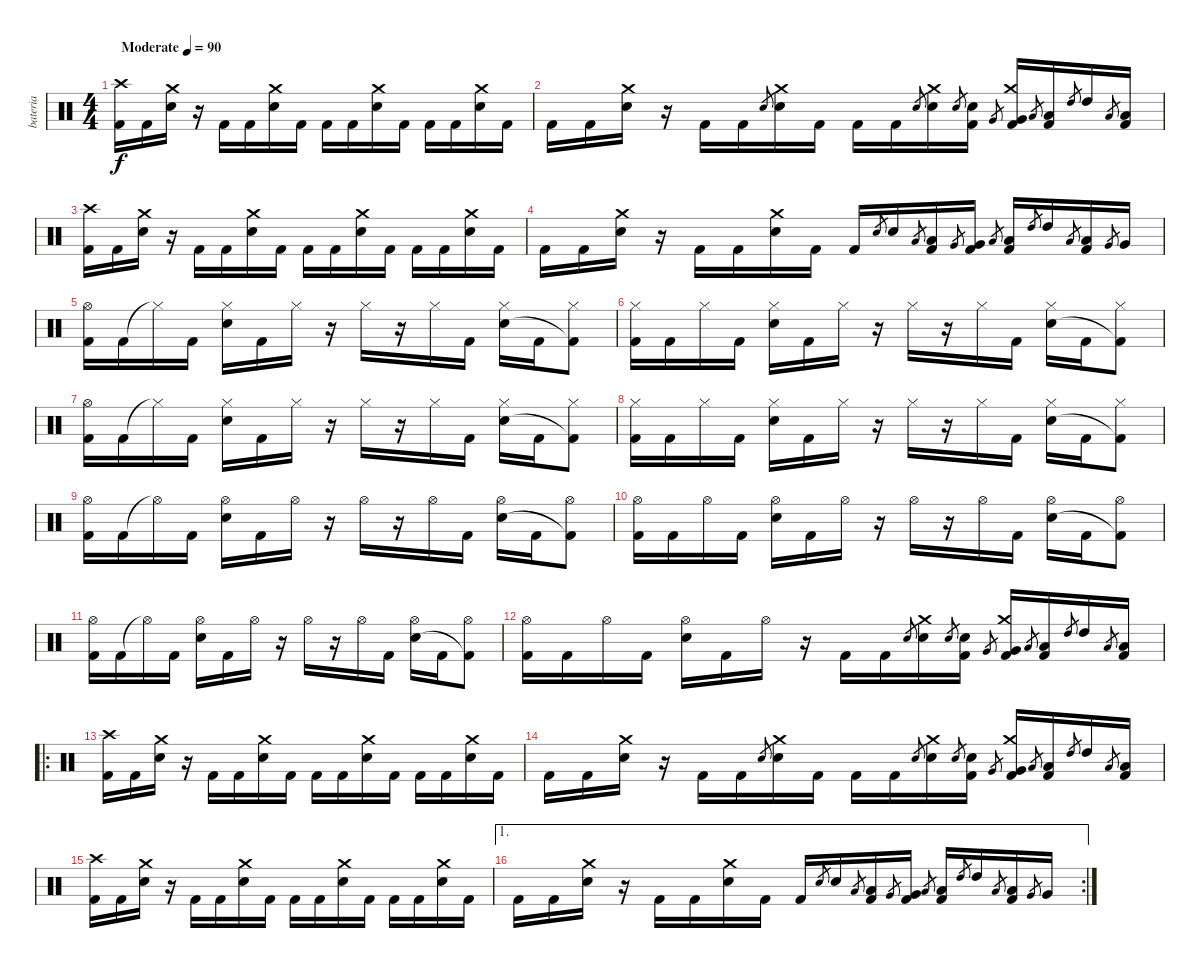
\track ("bateria" "bateria") {instrument percussion}
\staff {score}
\articulation defaults
\ts (4 4)
\tempo (90 "Moderate")
\clef neutral
\ks c
("Crash high (hit)" "Kick (hit) 2").16{dy f} "Kick (hit) 2".16 ("Crash medium (hit)" "Electric Snare (hit)").16 r.16 "Kick (hit) 2".16 "Kick (hit) 2".16 ("Crash medium (hit)" "Electric Snare (hit)").16 "Kick (hit) 2".16 "Kick (hit) 2".16 "Kick (hit) 2".16 ("Crash medium (hit)" "Electric Snare (hit)").16 "Kick (hit) 2".16 "Kick (hit) 2".16 "Kick (hit) 2".16 ("Crash medium (hit)" "Electric Snare (hit)").16 "Kick (hit) 2".16 |
"Kick (hit) 2".16 "Kick (hit) 2".16 ("Crash medium (hit)" "Electric Snare (hit)").16 r.16 "Kick (hit) 2".16 "Kick (hit) 2".16 "Electric Snare (hit)".8{gr} ("Crash medium (hit)" "Electric Snare (hit)").16 "Kick (hit) 2".16 "Kick (hit) 2".16 "Kick (hit) 2".16 "Electric Snare (hit)".8{gr} ("Crash medium (hit)" "Electric Snare (hit)").16 "Electric Snare (hit)".8{gr} ("Electric Snare (hit)" "Kick (hit) 2").16 "Very Low Tom (hit)".8{gr} ("Crash medium (hit)" "Very Low Tom (hit)" "Kick (hit) 2").16 "Low Tom (hit)".8{gr} ("Low Tom (hit)" "Kick (hit) 2").16 "High Tom (hit)".8{gr} "High Tom (hit)".16 "Low Tom (hit)".8{gr} ("Low Tom (hit)" "Kick (hit) 2").16 |
("Crash high (hit)" "Kick (hit) 2").16 "Kick (hit) 2".16 ("Crash medium (hit)" "Electric Snare (hit)").16 r.16 "Kick (hit) 2".16 "Kick (hit) 2".16 ("Crash medium (hit)" "Electric Snare (hit)").16 "Kick (hit) 2".16 "Kick (hit) 2".16 "Kick (hit) 2".16 ("Crash medium (hit)" "Electric Snare (hit)").16 "Kick (hit) 2".16 "Kick (hit) 2".16 "Kick (hit) 2".16 ("Crash medium (hit)" "Electric Snare (hit)").16 "Kick (hit) 2".16 |
"Kick (hit) 2".16 "Kick (hit) 2".16 ("Crash medium (hit)" "Electric Snare (hit)").16 r.16 "Kick (hit) 2".16 "Kick (hit) 2".16 ("Crash medium (hit)" "Electric Snare (hit)").16 "Kick (hit) 2".16 "Kick (hit) 2".16 "Electric Snare (hit)".8{gr} "Electric Snare (hit)".16 "Low Tom (hit)".8{gr} ("Low Tom (hit)" "Kick (hit) 2").16 "Very Low Tom (hit)".8{gr} ("Very Low Tom (hit)" "Kick (hit) 2").16 "Low Tom (hit)".8{gr} ("Low Tom (hit)" "Kick (hit) 2").16 "High Tom (hit)".8{gr} "High Tom (hit)".16 "Low Tom (hit)".8{gr} ("Low Tom (hit)" "Kick (hit) 2").16 "Very Low Tom (hit)".8{gr} "Very Low Tom (hit)".16 |
("Hi-Hat (open)" "Kick (hit) 2").16 "Kick (hit) 2".16 "Hi-Hat (closed)"{t}.16 "Kick (hit) 2".16 ("Hi-Hat (closed)" "Electric Snare (hit)").16 "Kick (hit) 2".16 "Hi-Hat (closed)".16 r.16 "Hi-Hat (closed)".16 r.16 "Hi-Hat (closed)".16 "Kick (hit) 2".16 ("Hi-Hat (closed)" "Electric Snare (hit)").16 "Kick (hit) 2".16 ("Hi-Hat (closed)" "Kick (hit) 2"{t}).8 |
("Hi-Hat (closed)" "Kick (hit) 2").16 "Kick (hit) 2".16 "Hi-Hat (closed)".16 "Kick (hit) 2".16 ("Hi-Hat (closed)" "Electric Snare (hit)").16 "Kick (hit) 2".16 "Hi-Hat (closed)".16 r.16 "Hi-Hat (closed)".16 r.16 "Hi-Hat (closed)".16 "Kick (hit) 2".16 ("Hi-Hat (closed)" "Electric Snare (hit)").16 "Kick (hit) 2".16 ("Hi-Hat (closed)" "Kick (hit) 2"{t}).8 |
("Hi-Hat (open)" "Kick (hit) 2").16 "Kick (hit) 2".16 "Hi-Hat (closed)"{t}.16 "Kick (hit) 2".16 ("Hi-Hat (closed)" "Electric Snare (hit)").16 "Kick (hit) 2".16 "Hi-Hat (closed)".16 r.16 "Hi-Hat (closed)".16 r.16 "Hi-Hat (closed)".16 "Kick (hit) 2".16 ("Hi-Hat (closed)" "Electric Snare (hit)").16 "Kick (hit) 2".16 ("Hi-Hat (closed)" "Kick (hit) 2"{t}).8 |
("Hi-Hat (closed)" "Kick (hit) 2").16 "Kick (hit) 2".16 "Hi-Hat (closed)".16 "Kick (hit) 2".16 ("Hi-Hat (closed)" "Electric Snare (hit)").16 "Kick (hit) 2".16 "Hi-Hat (closed)".16 r.16 "Hi-Hat (closed)".16 r.16 "Hi-Hat (closed)".16 "Kick (hit) 2".16 ("Hi-Hat (closed)" "Electric Snare (hit)").16 "Kick (hit) 2".16 ("Hi-Hat (closed)" "Kick (hit) 2"{t}).8 |
("Hi-Hat (open)" "Kick (hit) 2").16 "Kick (hit) 2".16 "Hi-Hat (open)"{t}.16 "Kick (hit) 2".16 ("Hi-Hat (open)" "Electric Snare (hit)").16 "Kick (hit) 2".16 "Hi-Hat (open)".16 r.16 "Hi-Hat (open)".16 r.16 "Hi-Hat (open)".16 "Kick (hit) 2".16 ("Hi-Hat (open)" "Electric Snare (hit)").16 "Kick (hit) 2".16 ("Hi-Hat (open)" "Kick (hit) 2"{t}).8 |
("Hi-Hat (open)" "Kick (hit) 2").16 "Kick (hit) 2".16 "Hi-Hat (open)".16 "Kick (hit) 2".16 ("Hi-Hat (open)" "Electric Snare (hit)").16 "Kick (hit) 2".16 "Hi-Hat (open)".16 r.16 "Hi-Hat (open)".16 r.16 "Hi-Hat (open)".16 "Kick (hit) 2".16 ("Hi-Hat (open)" "Electric Snare (hit)").16 "Kick (hit) 2".16 ("Hi-Hat (open)" "Kick (hit) 2"{t}).8 |
("Hi-Hat (open)" "Kick (hit) 2").16 "Kick (hit) 2".16 "Hi-Hat (open)"{t}.16 "Kick (hit) 2".16 ("Hi-Hat (open)" "Electric Snare (hit)").16 "Kick (hit) 2".16 "Hi-Hat (open)".16 r.16 "Hi-Hat (open)".16 r.16 "Hi-Hat (open)".16 "Kick (hit) 2".16 ("Hi-Hat (open)" "Electric Snare (hit)").16 "Kick (hit) 2".16 ("Hi-Hat (open)" "Kick (hit) 2"{t}).8 |
("Hi-Hat (open)" "Kick (hit) 2").16 "Kick (hit) 2".16 "Hi-Hat (open)".16 "Kick (hit) 2".16 ("Hi-Hat (open)" "Electric Snare (hit)").16 "Kick (hit) 2".16 "Hi-Hat (open)".16 r.16 "Kick (hit) 2".16 "Kick (hit) 2".16 "Electric Snare (hit)".8{gr} ("Crash medium (hit)" "Electric Snare (hit)").16 "Electric Snare (hit)".8{gr} ("Electric Snare (hit)" "Kick (hit) 2").16 "Very Low Tom (hit)".8{gr} ("Crash medium (hit)" "Very Low Tom (hit)" "Kick (hit) 2").16 "Low Tom (hit)".8{gr} ("Low Tom (hit)" "Kick (hit) 2").16 "High Tom (hit)".8{gr} "High Tom (hit)".16 "Low Tom (hit)".8{gr} ("Low Tom (hit)" "Kick (hit) 2").16 |
\ro
("Crash high (hit)" "Kick (hit) 2").16 "Kick (hit) 2".16 ("Crash medium (hit)" "Electric Snare (hit)").16 r.16 "Kick (hit) 2".16 "Kick (hit) 2".16 ("Crash medium (hit)" "Electric Snare (hit)").16 "Kick (hit) 2".16 "Kick (hit) 2".16 "Kick (hit) 2".16 ("Crash medium (hit)" "Electric Snare (hit)").16 "Kick (hit) 2".16 "Kick (hit) 2".16 "Kick (hit) 2".16 ("Crash medium (hit)" "Electric Snare (hit)").16 "Kick (hit) 2".16 |
"Kick (hit) 2".16 "Kick (hit) 2".16 ("Crash medium (hit)" "Electric Snare (hit)").16 r.16 "Kick (hit) 2".16 "Kick (hit) 2".16 "Electric Snare (hit)".8{gr} ("Crash medium (hit)" "Electric Snare (hit)").16 "Kick (hit) 2".16 "Kick (hit) 2".16 "Kick (hit) 2".16 "Electric Snare (hit)".8{gr} ("Crash medium (hit)" "Electric Snare (hit)").16 "Electric Snare (hit)".8{gr} ("Electric Snare (hit)" "Kick (hit) 2").16 "Very Low Tom (hit)".8{gr} ("Crash medium (hit)" "Very Low Tom (hit)" "Kick (hit) 2").16 "Low Tom (hit)".8{gr} ("Low Tom (hit)" "Kick (hit) 2").16 "High Tom (hit)".8{gr} "High Tom (hit)".16 "Low Tom (hit)".8{gr} ("Low Tom (hit)" "Kick (hit) 2").16 |
("Crash high (hit)" "Kick (hit) 2").16 "Kick (hit) 2".16 ("Crash medium (hit)" "Electric Snare (hit)").16 r.16 "Kick (hit) 2".16 "Kick (hit) 2".16 ("Crash medium (hit)" "Electric Snare (hit)").16 "Kick (hit) 2".16 "Kick (hit) 2".16 "Kick (hit) 2".16 ("Crash medium (hit)" "Electric Snare (hit)").16 "Kick (hit) 2".16 "Kick (hit) 2".16 "Kick (hit) 2".16 ("Crash medium (hit)" "Electric Snare (hit)").16 "Kick (hit) 2".16 |
\ae 1
\rc 2 "Kick (hit) 2".16 "Kick (hit) 2".16
("Crash medium (hit)" "Electric Snare (hit)").16 r.16 "Kick (hit) 2".16 "Kick (hit) 2".16 ("Crash medium (hit)" "Electric Snare (hit)").16 "Kick (hit) 2".16 "Kick (hit) 2".16 "Electric Snare (hit)".8{gr} "Electric Snare (hit)".16 "Low Tom (hit)".8{gr} ("Low Tom (hit)" "Kick (hit) 2").16 "Very Low Tom (hit)".8{gr} ("Very Low Tom (hit)" "Kick (hit) 2").16 "Low Tom (hit)".8{gr} ("Low Tom (hit)" "Kick (hit) 2").16 "High Tom (hit)".8{gr} "High Tom (hit)".16 "Low Tom (hit)".8{gr} ("Low Tom (hit)" "Kick (hit) 2").16 "Very Low Tom (hit)".8{gr} "Very Low Tom (hit)".16
